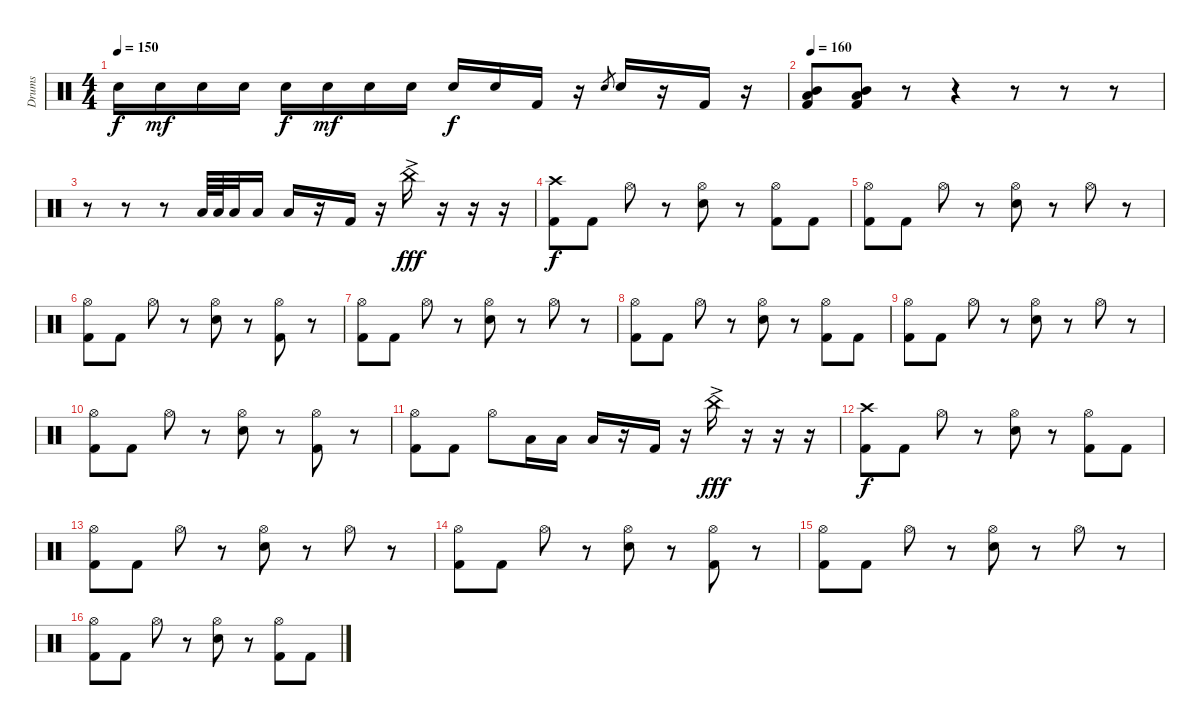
\track ("Drums" "Drums") {instrument percussion}
\staff {score}
\articulation defaults
\ts (4 4)
\tempo 150
\clef neutral
\ks c "Electric Snare (hit)".16{dy f} "Electric Snare (hit)".16{dy mf} "Electric Snare (hit)".16 "Electric Snare (hit)".16 "Electric Snare (hit)".16{dy f} "Electric Snare (hit)".16{dy mf} "Electric Snare (hit)".16 "Electric Snare (hit)".16 "Electric Snare (hit)".16{dy f} "Electric Snare (hit)".16 "Kick (hit) 2".16
r.16 "Electric Snare (hit)".8{gr} "Electric Snare (hit)".16 r.16 "Kick (hit) 2".16 r.16 |
\tempo 160
("Kick (hit) 2" "Low Floor Tom (hit)" "Mid Tom (hit)").8 ("Kick (hit) 2" "Low Floor Tom (hit)" "Mid Tom (hit)").8 r.8 r.4 r.8 r.8 r.8 |
r.8 r.8 r.8 "Low Floor Tom (hit)".64 "Low Floor Tom (hit)".64 "Low Floor Tom (hit)".32 "Low Floor Tom (hit)".16 "Low Floor Tom (hit)".16 r.16 "Kick (hit) 2".16 r.16 "China (hit)"{ac}.16{dy fff} r.16 r.16 r.16 |
("Kick (hit) 2" "Crash high (hit)").8{dy f} "Kick (hit) 2".8 "Hi-Hat (open)".8 r.8 ("Electric Snare (hit)" "Hi-Hat (open)").8 r.8 ("Kick (hit) 2" "Hi-Hat (open)").8 "Kick (hit) 2".8 |
("Kick (hit) 2" "Hi-Hat (open)").8 "Kick (hit) 2".8 "Hi-Hat (open)".8 r.8 ("Electric Snare (hit)" "Hi-Hat (open)").8 r.8 "Hi-Hat (open)".8 r.8 |
("Kick (hit) 2" "Hi-Hat (open)").8 "Kick (hit) 2".8 "Hi-Hat (open)".8 r.8 ("Electric Snare (hit)" "Hi-Hat (open)").8 r.8 ("Kick (hit) 2" "Hi-Hat (open)").8 r.8 |
("Kick (hit) 2" "Hi-Hat (open)").8 "Kick (hit) 2".8 "Hi-Hat (open)".8 r.8 ("Electric Snare (hit)" "Hi-Hat (open)").8 r.8 "Hi-Hat (open)".8 r.8 |
("Kick (hit) 2" "Hi-Hat (open)").8 "Kick (hit) 2".8 "Hi-Hat (open)".8 r.8 ("Electric Snare (hit)" "Hi-Hat (open)").8 r.8 ("Kick (hit) 2" "Hi-Hat (open)").8 "Kick (hit) 2".8 |
("Kick (hit) 2" "Hi-Hat (open)").8 "Kick (hit) 2".8 "Hi-Hat (open)".8 r.8 ("Electric Snare (hit)" "Hi-Hat (open)").8 r.8 "Hi-Hat (open)".8 r.8 |
("Kick (hit) 2" "Hi-Hat (open)").8 "Kick (hit) 2".8 "Hi-Hat (open)".8 r.8 ("Electric Snare (hit)" "Hi-Hat (open)").8 r.8 ("Kick (hit) 2" "Hi-Hat (open)").8 r.8 |
("Kick (hit) 2" "Hi-Hat (open)").8 "Kick (hit) 2".8 "Hi-Hat (open)".8 "Low Floor Tom (hit)".16 "Low Floor Tom (hit)".16 "Low Floor Tom (hit)".16 r.16 "Kick (hit) 2".16 r.16 "China (hit)"{ac}.16{dy fff} r.16 r.16 r.16 |
("Kick (hit) 2" "Crash high (hit)").8{dy f} "Kick (hit) 2".8 "Hi-Hat (open)".8 r.8 ("Electric Snare (hit)" "Hi-Hat (open)").8 r.8 ("Kick (hit) 2" "Hi-Hat (open)").8 "Kick (hit) 2".8 |
("Kick (hit) 2" "Hi-Hat (open)").8 "Kick (hit) 2".8 "Hi-Hat (open)".8 r.8 ("Electric Snare (hit)" "Hi-Hat (open)").8 r.8 "Hi-Hat (open)".8 r.8 |
("Kick (hit) 2" "Hi-Hat (open)").8 "Kick (hit) 2".8 "Hi-Hat (open)".8 r.8 ("Electric Snare (hit)" "Hi-Hat (open)").8 r.8 ("Kick (hit) 2" "Hi-Hat (open)").8 r.8 |
("Kick (hit) 2" "Hi-Hat (open)").8 "Kick (hit) 2".8 "Hi-Hat (open)".8 r.8 ("Electric Snare (hit)" "Hi-Hat (open)").8 r.8 "Hi-Hat (open)".8 r.8 |
("Kick (hit) 2" "Hi-Hat (open)").8 "Kick (hit) 2".8 "Hi-Hat (open)".8 r.8 ("Electric Snare (hit)" "Hi-Hat (open)").8 r.8 ("Kick (hit) 2" "Hi-Hat (open)").8 "Kick (hit) 2".8
